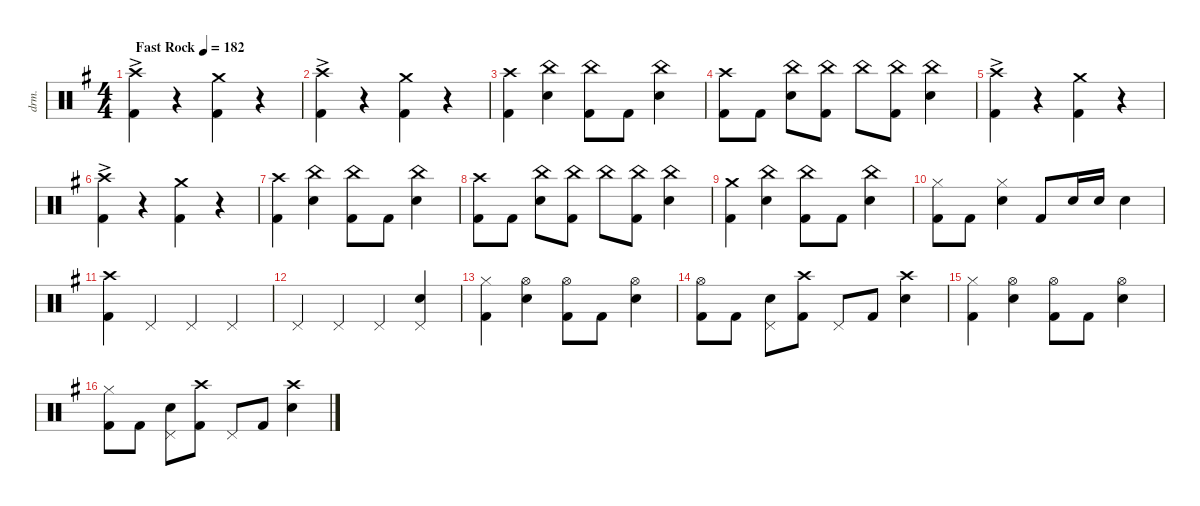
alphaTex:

\defaultSystemsLayout 4
\hideDynamics
\bracketExtendMode nobrackets
\otherSystemsTrackNameOrientation horizontal
\track ("Drum" "drm.") {defaultSystemsLayout 4 instrument percussion}
\staff {score}
\articulation defaults
\ts (4 4)
\tempo (182 "Fast Rock")
\clef neutral
\ks g
("Kick (hit) 2"{acc forcenatural} "Crash high (hit)"{ac acc forcenatural}).4{dy f beam Down} r.4{beam Down} ("Kick (hit) 2"{acc forcenatural} "Crash medium (hit)"{acc forcenatural}).4{beam Down} r.4{beam Down} |
("Kick (hit) 2"{acc forcenatural} "Crash high (hit)"{ac acc forcenatural}).4{beam Down} r.4{beam Down} ("Kick (hit) 2"{acc forcenatural} "Crash medium (hit)"{acc forcenatural}).4{beam Down} r.4{beam Down} |
("Kick (hit) 2"{acc forcenatural} "Crash high (hit)"{acc forcenatural}).4{beam Down} ("Snare (hit) 2"{acc forcenatural} "China (hit)"{acc forcenatural}).4{beam Down} ("China (hit)"{acc forcenatural} "Kick (hit) 2"{acc forcenatural}).8{beam Down} "Kick (hit) 2"{acc forcenatural}.8{beam Down} ("China (hit)"{acc forcenatural} "Snare (hit) 2"{acc forcenatural}).4{beam Down} |
("Kick (hit) 2"{acc forcenatural} "Crash high (hit)"{acc forcenatural}).8{beam Down} "Kick (hit) 2"{acc forcenatural}.8{beam Down} ("China (hit)"{acc forcenatural} "Snare (hit) 2"{acc forcenatural}).8{beam Down} ("Kick (hit) 2"{acc forcenatural} "China (hit)"{acc forcenatural}).8{beam Down} "China (hit)"{acc forcenatural}.8{beam Down} ("China (hit)"{acc forcenatural} "Kick (hit) 2"{acc forcenatural}).8{beam Down} ("China (hit)"{acc forcenatural} "Snare (hit) 2"{acc forcenatural}).4{beam Down} |
("Kick (hit) 2"{acc forcenatural} "Crash high (hit)"{ac acc forcenatural}).4{beam Down} r.4{beam Down} ("Kick (hit) 2"{acc forcenatural} "Crash medium (hit)"{acc forcenatural}).4{beam Down} r.4{beam Down} |
("Kick (hit) 2"{acc forcenatural} "Crash high (hit)"{ac acc forcenatural}).4{beam Down} r.4{beam Down} ("Kick (hit) 2"{acc forcenatural} "Crash medium (hit)"{acc forcenatural}).4{beam Down} r.4{beam Down} |
("Kick (hit) 2"{acc forcenatural} "Crash high (hit)"{acc forcenatural}).4{beam Down} ("Snare (hit) 2"{acc forcenatural} "China (hit)"{acc forcenatural}).4{beam Down} ("China (hit)"{acc forcenatural} "Kick (hit) 2"{acc forcenatural}).8{beam Down} "Kick (hit) 2"{acc forcenatural}.8{beam Down} ("China (hit)"{acc forcenatural} "Snare (hit) 2"{acc forcenatural}).4{beam Down} |
("Kick (hit) 2"{acc forcenatural} "Crash high (hit)"{acc forcenatural}).8{beam Down} "Kick (hit) 2"{acc forcenatural}.8{beam Down} ("China (hit)"{acc forcenatural} "Snare (hit) 2"{acc forcenatural}).8{beam Down} ("Kick (hit) 2"{acc forcenatural} "China (hit)"{acc forcenatural}).8{beam Down} "China (hit)"{acc forcenatural}.8{beam Down} ("China (hit)"{acc forcenatural} "Kick (hit) 2"{acc forcenatural}).8{beam Down} ("China (hit)"{acc forcenatural} "Snare (hit) 2"{acc forcenatural}).4{beam Down} |
("Kick (hit) 2"{acc forcenatural} "Crash medium (hit)"{acc forcenatural}).4{beam Down} ("Snare (hit) 2"{acc forcenatural} "China (hit)"{acc forcenatural}).4{beam Down} ("China (hit)"{acc forcenatural} "Kick (hit) 2"{acc forcenatural}).8{beam Down} "Kick (hit) 2"{acc forcenatural}.8{beam Down} ("China (hit)"{acc forcenatural} "Snare (hit) 2"{acc forcenatural}).4{beam Down} |
("Kick (hit) 2"{acc forcenatural} "Hi-Hat (closed)"{acc forcenatural}).8{beam Down} "Kick (hit) 2"{acc forcenatural}.8{beam Down} ("Snare (hit) 2"{acc forcenatural} "Hi-Hat (closed)"{acc forcenatural}).4{beam Down} "Kick (hit) 2"{acc forcenatural}.8{beam Up} "Snare (hit) 2"{acc forcenatural}.16{beam Up} "Snare (hit) 2"{acc forcenatural}.16{beam Up} "Snare (hit) 2"{acc forcenatural}.4{beam Down} |
("Kick (hit) 2"{acc forcenatural} "Crash high (hit)"{acc forcenatural}).4{beam Down} "Pedal Hi-Hat (hit)"{acc forcenatural}.4{beam Up} "Pedal Hi-Hat (hit)"{acc forcenatural}.4{beam Up} "Pedal Hi-Hat (hit)"{acc forcenatural}.4{beam Up} |
"Pedal Hi-Hat (hit)"{acc forcenatural}.4{beam Up} "Pedal Hi-Hat (hit)"{acc forcenatural}.4{beam Up} "Pedal Hi-Hat (hit)"{acc forcenatural}.4{beam Up} ("Snare (hit) 2"{acc forcenatural} "Pedal Hi-Hat (hit)"{acc forcenatural}).4{beam Up} |
("Hi-Hat (closed)"{acc forcenatural} "Kick (hit) 2"{acc forcenatural}).4{beam Down} ("Snare (hit) 2"{acc forcenatural} "Hi-Hat (open)"{acc forcenatural}).4{beam Down} ("Kick (hit) 2"{acc forcenatural} "Hi-Hat (open)"{acc forcenatural}).8{beam Down} "Kick (hit) 2"{acc forcenatural}.8{beam Down} ("Snare (hit) 2"{acc forcenatural} "Hi-Hat (open)"{acc forcenatural}).4{beam Down} |
("Kick (hit) 2"{acc forcenatural} "Hi-Hat (open)"{acc forcenatural}).8{beam Down} "Kick (hit) 2"{acc forcenatural}.8{beam Down} ("Snare (hit) 2"{acc forcenatural} "Pedal Hi-Hat (hit)"{acc forcenatural}).8{beam Down} ("Kick (hit) 2"{acc forcenatural} "Crash high (hit)"{acc forcenatural}).8{beam Down} "Pedal Hi-Hat (hit)"{acc forcenatural}.8{beam Up} "Kick (hit) 2"{acc forcenatural}.8{beam Up} ("Snare (hit) 2"{acc forcenatural} "Crash high (hit)"{acc forcenatural}).4{beam Down} |
("Hi-Hat (closed)"{acc forcenatural} "Kick (hit) 2"{acc forcenatural}).4{beam Down} ("Snare (hit) 2"{acc forcenatural} "Hi-Hat (open)"{acc forcenatural}).4{beam Down} ("Kick (hit) 2"{acc forcenatural} "Hi-Hat (open)"{acc forcenatural}).8{beam Down} "Kick (hit) 2"{acc forcenatural}.8{beam Down} ("Snare (hit) 2"{acc forcenatural} "Hi-Hat (open)"{acc forcenatural}).4{beam Down} |
("Kick (hit) 2"{acc forcenatural} "Hi-Hat (closed)"{acc forcenatural}).8{beam Down} "Kick (hit) 2"{acc forcenatural}.8{beam Down} ("Snare (hit) 2"{acc forcenatural} "Pedal Hi-Hat (hit)"{acc forcenatural}).8{beam Down} ("Kick (hit) 2"{acc forcenatural} "Crash high (hit)"{acc forcenatural}).8{beam Down} "Pedal Hi-Hat (hit)"{acc forcenatural}.8{beam Up} "Kick (hit) 2"{acc forcenatural}.8{beam Up} ("Snare (hit) 2"{acc forcenatural} "Crash high (hit)"{acc forcenatural}).4{beam Down}
